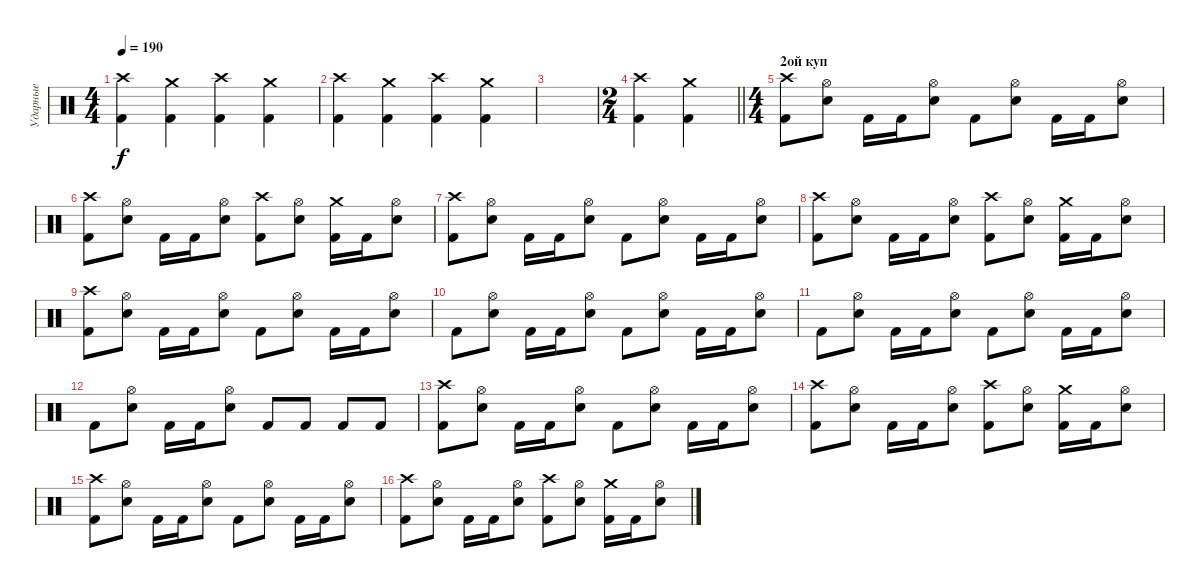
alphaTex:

\track ("Ударные" "Ударные") {instrument percussion}
\staff {score}
\articulation defaults
\ts (4 4)
\tempo 190
\clef neutral
\ks c
("Crash high (hit)" "Kick (hit) 2").4{dy f} ("Crash medium (hit)" "Kick (hit) 2").4 ("Crash high (hit)" "Kick (hit) 2").4 ("Crash medium (hit)" "Kick (hit) 2").4 |
("Crash high (hit)" "Kick (hit) 2").4 ("Crash medium (hit)" "Kick (hit) 2").4 ("Crash high (hit)" "Kick (hit) 2").4 ("Crash medium (hit)" "Kick (hit) 2").4 |
|
\ts (2 4)
\barLineRight lightlight
("Crash high (hit)" "Kick (hit) 2").4 ("Crash medium (hit)" "Kick (hit) 2").4 |
\ts (4 4)
\section ("" "2ой куп")
("Crash high (hit)" "Kick (hit) 2").8 ("Hi-Hat (open)" "Electric Snare (hit)").8 "Kick (hit) 2".16 "Kick (hit) 2".16 ("Hi-Hat (open)" "Electric Snare (hit)").8 "Kick (hit) 2".8 ("Hi-Hat (open)" "Electric Snare (hit)").8 "Kick (hit) 2".16 "Kick (hit) 2".16 ("Hi-Hat (open)" "Electric Snare (hit)").8 |
("Crash high (hit)" "Kick (hit) 2").8 ("Hi-Hat (open)" "Electric Snare (hit)").8 "Kick (hit) 2".16 "Kick (hit) 2".16 ("Hi-Hat (open)" "Electric Snare (hit)").8 ("Crash high (hit)" "Kick (hit) 2").8 ("Hi-Hat (open)" "Electric Snare (hit)").8 ("Crash medium (hit)" "Kick (hit) 2").16 "Kick (hit) 2".16 ("Hi-Hat (open)" "Electric Snare (hit)").8 |
("Crash high (hit)" "Kick (hit) 2").8 ("Hi-Hat (open)" "Electric Snare (hit)").8 "Kick (hit) 2".16 "Kick (hit) 2".16 ("Hi-Hat (open)" "Electric Snare (hit)").8 "Kick (hit) 2".8 ("Hi-Hat (open)" "Electric Snare (hit)").8 "Kick (hit) 2".16 "Kick (hit) 2".16 ("Hi-Hat (open)" "Electric Snare (hit)").8 |
("Crash high (hit)" "Kick (hit) 2").8 ("Hi-Hat (open)" "Electric Snare (hit)").8 "Kick (hit) 2".16 "Kick (hit) 2".16 ("Hi-Hat (open)" "Electric Snare (hit)").8 ("Crash high (hit)" "Kick (hit) 2").8 ("Hi-Hat (open)" "Electric Snare (hit)").8 ("Crash medium (hit)" "Kick (hit) 2").16 "Kick (hit) 2".16 ("Hi-Hat (open)" "Electric Snare (hit)").8 |
("Crash high (hit)" "Kick (hit) 2").8 ("Hi-Hat (open)" "Electric Snare (hit)").8 "Kick (hit) 2".16 "Kick (hit) 2".16 ("Hi-Hat (open)" "Electric Snare (hit)").8 "Kick (hit) 2".8 ("Hi-Hat (open)" "Electric Snare (hit)").8 "Kick (hit) 2".16 "Kick (hit) 2".16 ("Hi-Hat (open)" "Electric Snare (hit)").8 |
"Kick (hit) 2".8 ("Hi-Hat (open)" "Electric Snare (hit)").8 "Kick (hit) 2".16 "Kick (hit) 2".16 ("Hi-Hat (open)" "Electric Snare (hit)").8 "Kick (hit) 2".8 ("Hi-Hat (open)" "Electric Snare (hit)").8 "Kick (hit) 2".16 "Kick (hit) 2".16 ("Hi-Hat (open)" "Electric Snare (hit)").8 |
"Kick (hit) 2".8 ("Hi-Hat (open)" "Electric Snare (hit)").8 "Kick (hit) 2".16 "Kick (hit) 2".16 ("Hi-Hat (open)" "Electric Snare (hit)").8 "Kick (hit) 2".8 ("Hi-Hat (open)" "Electric Snare (hit)").8 "Kick (hit) 2".16 "Kick (hit) 2".16 ("Hi-Hat (open)" "Electric Snare (hit)").8 |
"Kick (hit) 2".8 ("Hi-Hat (open)" "Electric Snare (hit)").8 "Kick (hit) 2".16 "Kick (hit) 2".16 ("Hi-Hat (open)" "Electric Snare (hit)").8 "Kick (hit) 2".8 "Kick (hit) 2".8 "Kick (hit) 2".8 "Kick (hit) 2".8 |
("Crash high (hit)" "Kick (hit) 2").8 ("Hi-Hat (open)" "Electric Snare (hit)").8 "Kick (hit) 2".16 "Kick (hit) 2".16 ("Hi-Hat (open)" "Electric Snare (hit)").8 "Kick (hit) 2".8 ("Hi-Hat (open)" "Electric Snare (hit)").8 "Kick (hit) 2".16 "Kick (hit) 2".16 ("Hi-Hat (open)" "Electric Snare (hit)").8 |
("Crash high (hit)" "Kick (hit) 2").8 ("Hi-Hat (open)" "Electric Snare (hit)").8 "Kick (hit) 2".16 "Kick (hit) 2".16 ("Hi-Hat (open)" "Electric Snare (hit)").8 ("Crash high (hit)" "Kick (hit) 2").8 ("Hi-Hat (open)" "Electric Snare (hit)").8 ("Crash medium (hit)" "Kick (hit) 2").16 "Kick (hit) 2".16 ("Hi-Hat (open)" "Electric Snare (hit)").8 |
("Crash high (hit)" "Kick (hit) 2").8 ("Hi-Hat (open)" "Electric Snare (hit)").8 "Kick (hit) 2".16 "Kick (hit) 2".16 ("Hi-Hat (open)" "Electric Snare (hit)").8 "Kick (hit) 2".8 ("Hi-Hat (open)" "Electric Snare (hit)").8 "Kick (hit) 2".16 "Kick (hit) 2".16 ("Hi-Hat (open)" "Electric Snare (hit)").8 |
("Crash high (hit)" "Kick (hit) 2").8 ("Hi-Hat (open)" "Electric Snare (hit)").8 "Kick (hit) 2".16 "Kick (hit) 2".16 ("Hi-Hat (open)" "Electric Snare (hit)").8 ("Crash high (hit)" "Kick (hit) 2").8 ("Hi-Hat (open)" "Electric Snare (hit)").8 ("Crash medium (hit)" "Kick (hit) 2").16 "Kick (hit) 2".16 ("Hi-Hat (open)" "Electric Snare (hit)").8
